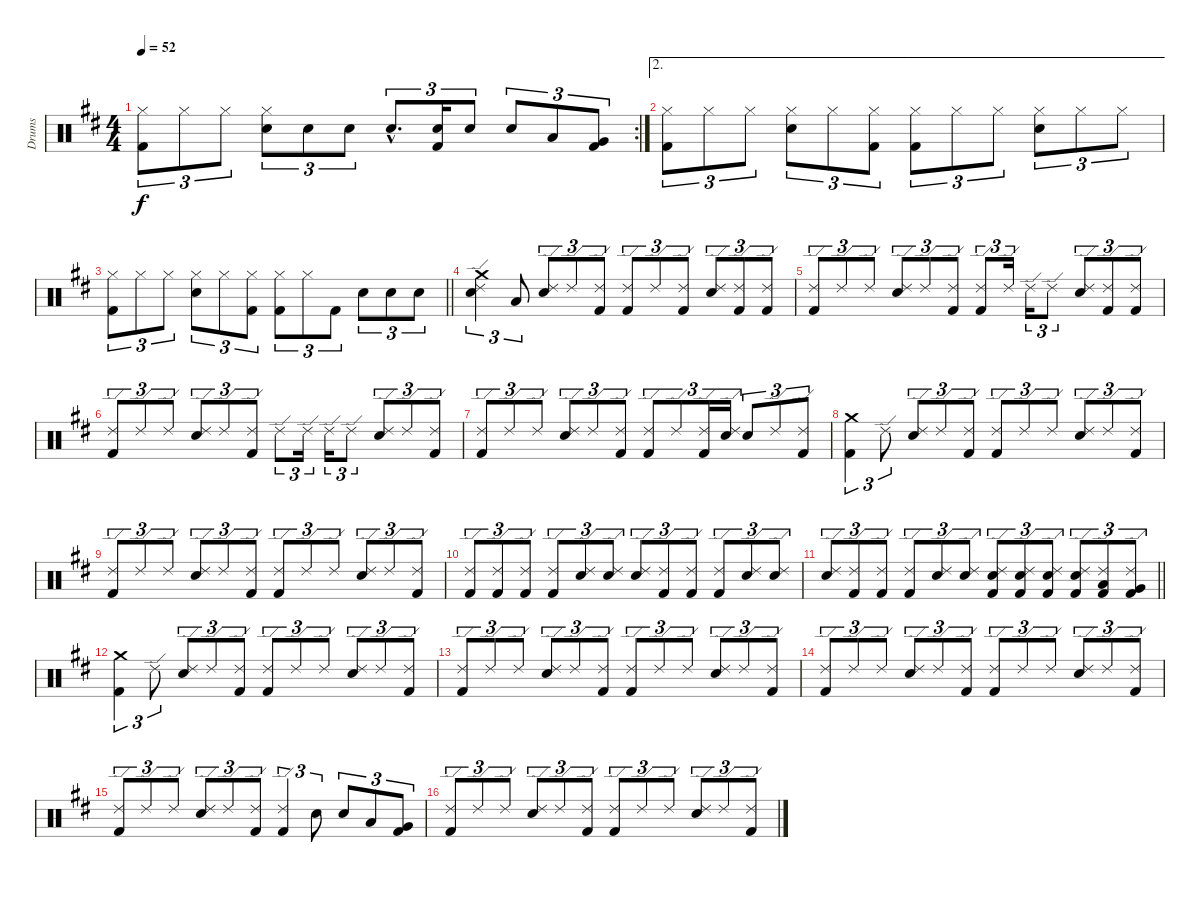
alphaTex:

\track ("Drums" "Drums") {instrument percussion}
\staff {score}
\articulation defaults
\rc 2
\ts (4 4)
\tempo 52
\clef neutral
\ks d
("Hi-Hat (closed)" "Kick (hit) 2").8{tu (3 2) dy f} "Hi-Hat (closed)".8{tu (3 2)} "Hi-Hat (closed)".8{tu (3 2)} ("Hi-Hat (closed)" "Snare (hit) 2").8{tu (3 2)} "Snare (hit) 2".8{tu (3 2)} "Snare (hit) 2".8{tu (3 2)} "Snare (hit) 2"{hac}.8{d tu (3 2)} ("Snare (hit) 2" "Kick (hit) 2").16{tu (3 2)} "Snare (hit) 2".8{tu (3 2)} "Snare (hit) 2".8{tu (3 2)} "Low Tom (hit)".8{tu (3 2)} ("Very Low Tom (hit)" "Kick (hit) 2").8{tu (3 2)} |
\ae 2
("Hi-Hat (closed)" "Kick (hit) 2").8{tu (3 2)} "Hi-Hat (closed)".8{tu (3 2)} "Hi-Hat (closed)".8{tu (3 2)} ("Hi-Hat (closed)" "Snare (hit) 2").8{tu (3 2)} "Hi-Hat (closed)".8{tu (3 2)} ("Hi-Hat (closed)" "Kick (hit) 2").8{tu (3 2)} ("Hi-Hat (closed)" "Kick (hit) 2").8{tu (3 2)} "Hi-Hat (closed)".8{tu (3 2)} "Hi-Hat (closed)".8{tu (3 2)} ("Hi-Hat (closed)" "Snare (hit) 2").8{tu (3 2)} "Hi-Hat (closed)".8{tu (3 2)} "Hi-Hat (closed)".8{tu (3 2)} |
\barLineRight lightlight
("Hi-Hat (closed)" "Kick (hit) 2").8{tu (3 2)} "Hi-Hat (closed)".8{tu (3 2)} "Hi-Hat (closed)".8{tu (3 2)} ("Hi-Hat (closed)" "Snare (hit) 2").8{tu (3 2)} "Hi-Hat (closed)".8{tu (3 2)} ("Hi-Hat (closed)" "Kick (hit) 2").8{tu (3 2)} ("Hi-Hat (closed)" "Kick (hit) 2").8{tu (3 2)} "Hi-Hat (closed)".8{tu (3 2)} "Kick (hit) 2".8{tu (3 2)} "Snare (hit) 2".8{tu (3 2)} "Snare (hit) 2".8{tu (3 2)} "Snare (hit) 2".8{tu (3 2)} |
("Ride (edge) 2" "Snare (hit) 2" "Crash medium (hit)").4{tu (3 2)} "Low Tom (hit)".8{tu (3 2)} ("Ride (edge) 2" "Snare (hit) 2").8{tu (3 2)} "Ride (edge) 2".8{tu (3 2)} ("Ride (edge) 2" "Kick (hit) 2").8{tu (3 2)} ("Ride (edge) 2" "Kick (hit) 2").8{tu (3 2)} "Ride (edge) 2".8{tu (3 2)} ("Ride (edge) 2" "Kick (hit) 2").8{tu (3 2)} ("Ride (edge) 2" "Snare (hit) 2").8{tu (3 2)} ("Ride (edge) 2" "Kick (hit) 2").8{tu (3 2)} ("Ride (edge) 2" "Kick (hit) 2").8{tu (3 2)} |
("Ride (edge) 2" "Kick (hit) 2").8{tu (3 2)} "Ride (edge) 2".8{tu (3 2)} "Ride (edge) 2".8{tu (3 2)} ("Ride (edge) 2" "Snare (hit) 2").8{tu (3 2)} "Ride (edge) 2".8{tu (3 2)} ("Ride (edge) 2" "Kick (hit) 2").8{tu (3 2)} ("Ride (edge) 2" "Kick (hit) 2").8{tu (3 2)} "Ride (edge) 2".16{tu (3 2)} "Ride (edge) 2".16{tu (3 2)} "Ride (edge) 2".8{tu (3 2)} ("Ride (edge) 2" "Snare (hit) 2").8{tu (3 2)} ("Ride (edge) 2" "Kick (hit) 2").8{tu (3 2)} ("Ride (edge) 2" "Kick (hit) 2").8{tu (3 2)} |
("Ride (edge) 2" "Kick (hit) 2").8{tu (3 2)} "Ride (edge) 2".8{tu (3 2)} "Ride (edge) 2".8{tu (3 2)} ("Ride (edge) 2" "Snare (hit) 2").8{tu (3 2)} "Ride (edge) 2".8{tu (3 2)} ("Ride (edge) 2" "Kick (hit) 2").8{tu (3 2)} "Ride (edge) 2".8{tu (3 2)} "Ride (edge) 2".16{tu (3 2)} "Ride (edge) 2".16{tu (3 2)} "Ride (edge) 2".8{tu (3 2)} ("Ride (edge) 2" "Snare (hit) 2").8{tu (3 2)} "Ride (edge) 2".8{tu (3 2)} ("Ride (edge) 2" "Kick (hit) 2").8{tu (3 2)} |
("Ride (edge) 2" "Kick (hit) 2").8{tu (3 2)} "Ride (edge) 2".8{tu (3 2)} "Ride (edge) 2".8{tu (3 2)} ("Ride (edge) 2" "Snare (hit) 2").8{tu (3 2)} "Ride (edge) 2".8{tu (3 2)} ("Ride (edge) 2" "Kick (hit) 2").8{tu (3 2)} ("Ride (edge) 2" "Kick (hit) 2").8{tu (3 2)} "Ride (edge) 2".8{tu (3 2)} ("Ride (edge) 2" "Kick (hit) 2").16{tu (3 2)} ("Ride (edge) 2" "Snare (hit) 2").16{tu (3 2)} "Snare (hit) 2".8{tu (3 2)} "Ride (edge) 2".8{tu (3 2)} ("Ride (edge) 2" "Kick (hit) 2").8{tu (3 2)} |
("Crash medium (hit)" "Kick (hit) 2").4{tu (3 2)} "Ride (edge) 2".8{tu (3 2)} ("Ride (edge) 2" "Snare (hit) 2").8{tu (3 2)} "Ride (edge) 2".8{tu (3 2)} ("Ride (edge) 2" "Kick (hit) 2").8{tu (3 2)} ("Ride (edge) 2" "Kick (hit) 2").8{tu (3 2)} "Ride (edge) 2".8{tu (3 2)} "Ride (edge) 2".8{tu (3 2)} ("Ride (edge) 2" "Snare (hit) 2").8{tu (3 2)} "Ride (edge) 2".8{tu (3 2)} ("Ride (edge) 2" "Kick (hit) 2").8{tu (3 2)} |
("Ride (edge) 2" "Kick (hit) 2").8{tu (3 2)} "Ride (edge) 2".8{tu (3 2)} "Ride (edge) 2".8{tu (3 2)} ("Ride (edge) 2" "Snare (hit) 2").8{tu (3 2)} "Ride (edge) 2".8{tu (3 2)} ("Ride (edge) 2" "Kick (hit) 2").8{tu (3 2)} ("Ride (edge) 2" "Kick (hit) 2").8{tu (3 2)} "Ride (edge) 2".8{tu (3 2)} "Ride (edge) 2".8{tu (3 2)} ("Ride (edge) 2" "Snare (hit) 2").8{tu (3 2)} "Ride (edge) 2".8{tu (3 2)} ("Ride (edge) 2" "Kick (hit) 2").8{tu (3 2)} |
("Ride (edge) 2" "Kick (hit) 2").8{tu (3 2)} ("Ride (edge) 2" "Kick (hit) 2").8{tu (3 2)} ("Ride (edge) 2" "Kick (hit) 2").8{tu (3 2)} ("Ride (edge) 2" "Kick (hit) 2").8{tu (3 2)} ("Ride (edge) 2" "Snare (hit) 2").8{tu (3 2)} ("Ride (edge) 2" "Snare (hit) 2").8{tu (3 2)} ("Ride (edge) 2" "Snare (hit) 2").8{tu (3 2)} ("Ride (edge) 2" "Kick (hit) 2").8{tu (3 2)} ("Ride (edge) 2" "Kick (hit) 2").8{tu (3 2)} ("Ride (edge) 2" "Kick (hit) 2").8{tu (3 2)} ("Ride (edge) 2" "Snare (hit) 2").8{tu (3 2)} ("Ride (edge) 2" "Snare (hit) 2").8{tu (3 2)} |
\barLineRight lightlight
("Ride (edge) 2" "Snare (hit) 2").8{tu (3 2)} ("Ride (edge) 2" "Kick (hit) 2").8{tu (3 2)} ("Ride (edge) 2" "Kick (hit) 2").8{tu (3 2)} ("Ride (edge) 2" "Kick (hit) 2").8{tu (3 2)} ("Ride (edge) 2" "Snare (hit) 2").8{tu (3 2)} ("Ride (edge) 2" "Snare (hit) 2").8{tu (3 2)} ("Ride (edge) 2" "Snare (hit) 2" "Kick (hit) 2").8{tu (3 2)} ("Ride (edge) 2" "Snare (hit) 2" "Kick (hit) 2").8{tu (3 2)} ("Ride (edge) 2" "Snare (hit) 2" "Kick (hit) 2").8{tu (3 2)} ("Ride (edge) 2" "Snare (hit) 2" "Kick (hit) 2").8{tu (3 2)} ("Ride (edge) 2" "Low Tom (hit)" "Kick (hit) 2").8{tu (3 2)} ("Ride (edge) 2" "Very Low Tom (hit)" "Kick (hit) 2").8{tu (3 2)} |
("Crash medium (hit)" "Kick (hit) 2").4{tu (3 2)} "Ride (edge) 2".8{tu (3 2)} ("Ride (edge) 2" "Snare (hit) 2").8{tu (3 2)} "Ride (edge) 2".8{tu (3 2)} ("Ride (edge) 2" "Kick (hit) 2").8{tu (3 2)} ("Ride (edge) 2" "Kick (hit) 2").8{tu (3 2)} "Ride (edge) 2".8{tu (3 2)} "Ride (edge) 2".8{tu (3 2)} ("Ride (edge) 2" "Snare (hit) 2").8{tu (3 2)} "Ride (edge) 2".8{tu (3 2)} ("Ride (edge) 2" "Kick (hit) 2").8{tu (3 2)} |
("Ride (edge) 2" "Kick (hit) 2").8{tu (3 2)} "Ride (edge) 2".8{tu (3 2)} "Ride (edge) 2".8{tu (3 2)} ("Ride (edge) 2" "Snare (hit) 2").8{tu (3 2)} "Ride (edge) 2".8{tu (3 2)} ("Ride (edge) 2" "Kick (hit) 2").8{tu (3 2)} ("Ride (edge) 2" "Kick (hit) 2").8{tu (3 2)} "Ride (edge) 2".8{tu (3 2)} "Ride (edge) 2".8{tu (3 2)} ("Ride (edge) 2" "Snare (hit) 2").8{tu (3 2)} "Ride (edge) 2".8{tu (3 2)} ("Ride (edge) 2" "Kick (hit) 2").8{tu (3 2)} |
("Ride (edge) 2" "Kick (hit) 2").8{tu (3 2)} "Ride (edge) 2".8{tu (3 2)} "Ride (edge) 2".8{tu (3 2)} ("Ride (edge) 2" "Snare (hit) 2").8{tu (3 2)} "Ride (edge) 2".8{tu (3 2)} ("Ride (edge) 2" "Kick (hit) 2").8{tu (3 2)} ("Ride (edge) 2" "Kick (hit) 2").8{tu (3 2)} "Ride (edge) 2".8{tu (3 2)} "Ride (edge) 2".8{tu (3 2)} ("Ride (edge) 2" "Snare (hit) 2").8{tu (3 2)} "Ride (edge) 2".8{tu (3 2)} ("Ride (edge) 2" "Kick (hit) 2").8{tu (3 2)} |
("Ride (edge) 2" "Kick (hit) 2").8{tu (3 2)} "Ride (edge) 2".8{tu (3 2)} "Ride (edge) 2".8{tu (3 2)} ("Ride (edge) 2" "Snare (hit) 2").8{tu (3 2)} "Ride (edge) 2".8{tu (3 2)} ("Ride (edge) 2" "Kick (hit) 2").8{tu (3 2)} ("Ride (edge) 2" "Kick (hit) 2").4{tu (3 2)} "Snare (hit) 2".8{tu (3 2)} "Snare (hit) 2".8{tu (3 2)} "Low Tom (hit)".8{tu (3 2)} ("Very Low Tom (hit)" "Kick (hit) 2").8{tu (3 2)} |
("Ride (edge) 2" "Kick (hit) 2").8{tu (3 2)} "Ride (edge) 2".8{tu (3 2)} "Ride (edge) 2".8{tu (3 2)} ("Ride (edge) 2" "Snare (hit) 2").8{tu (3 2)} "Ride (edge) 2".8{tu (3 2)} ("Ride (edge) 2" "Kick (hit) 2").8{tu (3 2)} ("Ride (edge) 2" "Kick (hit) 2").8{tu (3 2)} "Ride (edge) 2".8{tu (3 2)} "Ride (edge) 2".8{tu (3 2)} ("Ride (edge) 2" "Snare (hit) 2").8{tu (3 2)} "Ride (edge) 2".8{tu (3 2)} ("Ride (edge) 2" "Kick (hit) 2").8{tu (3 2)}
